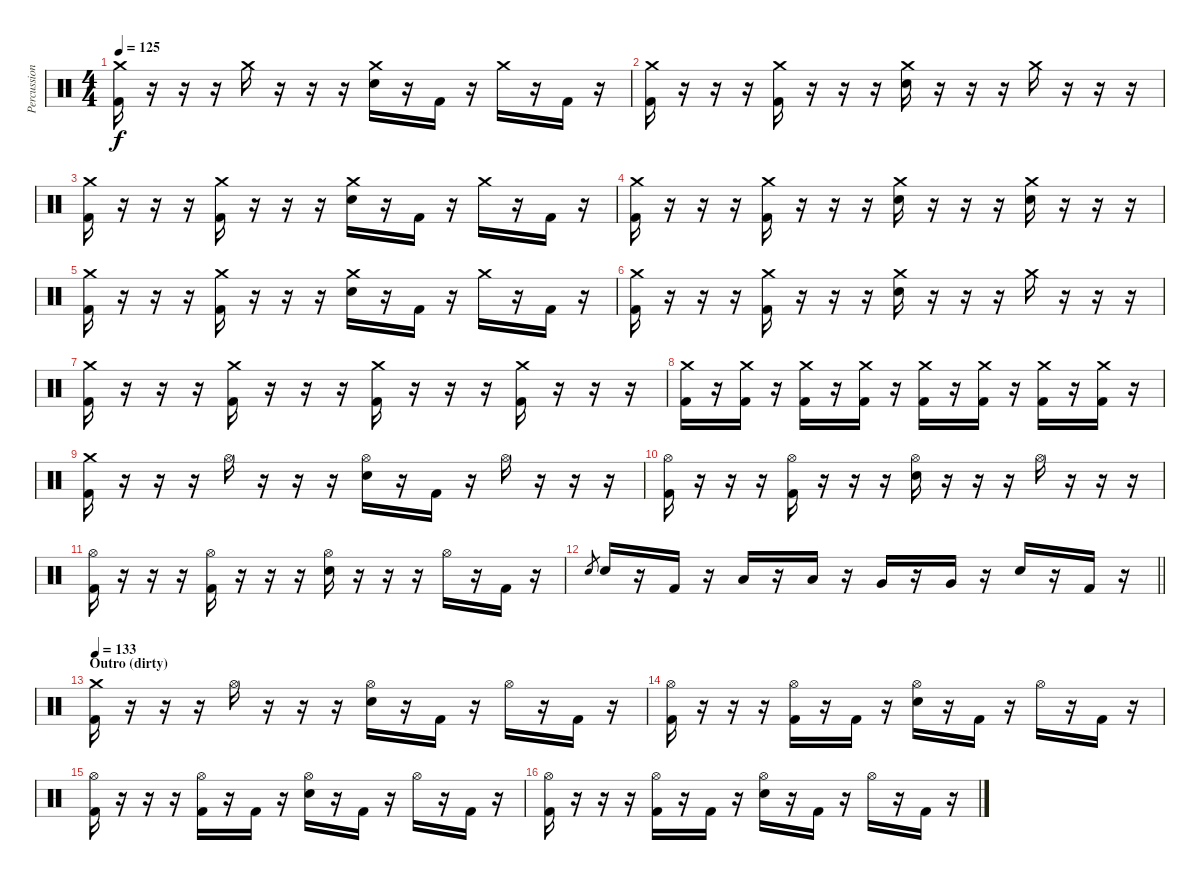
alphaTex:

\track ("Percussion" "Percussion") {instrument percussion}
\staff {score}
\articulation defaults
\ts (4 4)
\tempo 125
\clef neutral
\ks c
("Crash medium (hit)" "Kick (hit) 2").16{dy f} r.16 r.16 r.16 "Crash medium (hit)".16 r.16 r.16 r.16 ("Crash medium (hit)" "Electric Snare (hit)").16 r.16 "Kick (hit) 2".16 r.16 "Crash medium (hit)".16 r.16 "Kick (hit) 2".16 r.16 |
("Crash medium (hit)" "Kick (hit) 2").16 r.16 r.16 r.16 ("Crash medium (hit)" "Kick (hit) 2").16 r.16 r.16 r.16 ("Crash medium (hit)" "Electric Snare (hit)").16 r.16 r.16 r.16 "Crash medium (hit)".16 r.16 r.16 r.16 |
("Crash medium (hit)" "Kick (hit) 2").16 r.16 r.16 r.16 ("Crash medium (hit)" "Kick (hit) 2").16 r.16 r.16 r.16 ("Crash medium (hit)" "Electric Snare (hit)").16 r.16 "Kick (hit) 2".16 r.16 "Crash medium (hit)".16 r.16 "Kick (hit) 2".16 r.16 |
("Crash medium (hit)" "Kick (hit) 2").16 r.16 r.16 r.16 ("Crash medium (hit)" "Kick (hit) 2").16 r.16 r.16 r.16 ("Crash medium (hit)" "Electric Snare (hit)").16 r.16 r.16 r.16 ("Crash medium (hit)" "Electric Snare (hit)").16 r.16 r.16 r.16 |
("Crash medium (hit)" "Kick (hit) 2").16 r.16 r.16 r.16 ("Crash medium (hit)" "Kick (hit) 2").16 r.16 r.16 r.16 ("Crash medium (hit)" "Electric Snare (hit)").16 r.16 "Kick (hit) 2".16 r.16 "Crash medium (hit)".16 r.16 "Kick (hit) 2".16 r.16 |
("Crash medium (hit)" "Kick (hit) 2").16 r.16 r.16 r.16 ("Crash medium (hit)" "Kick (hit) 2").16 r.16 r.16 r.16 ("Crash medium (hit)" "Electric Snare (hit)").16 r.16 r.16 r.16 "Crash medium (hit)".16 r.16 r.16 r.16 |
("Crash medium (hit)" "Kick (hit) 2").16 r.16 r.16 r.16 ("Crash medium (hit)" "Kick (hit) 2").16 r.16 r.16 r.16 ("Crash medium (hit)" "Kick (hit) 2").16 r.16 r.16 r.16 ("Crash medium (hit)" "Kick (hit) 2").16 r.16 r.16 r.16 |
("Crash medium (hit)" "Kick (hit) 2").16 r.16 ("Crash medium (hit)" "Kick (hit) 2").16 r.16 ("Crash medium (hit)" "Kick (hit) 2").16 r.16 ("Crash medium (hit)" "Kick (hit) 2").16 r.16 ("Crash medium (hit)" "Kick (hit) 2").16 r.16 ("Crash medium (hit)" "Kick (hit) 2").16 r.16 ("Crash medium (hit)" "Kick (hit) 2").16 r.16 ("Crash medium (hit)" "Kick (hit) 2").16 r.16 |
("Crash medium (hit)" "Kick (hit) 2").16 r.16 r.16 r.16 "Hi-Hat (open)".16 r.16 r.16 r.16 ("Hi-Hat (open)" "Electric Snare (hit)").16 r.16 "Kick (hit) 2".16 r.16 "Hi-Hat (open)".16 r.16 r.16 r.16 |
("Hi-Hat (open)" "Kick (hit) 2").16 r.16 r.16 r.16 ("Hi-Hat (open)" "Kick (hit) 2").16 r.16 r.16 r.16 ("Hi-Hat (open)" "Electric Snare (hit)").16 r.16 r.16 r.16 "Hi-Hat (open)".16 r.16 r.16 r.16 |
("Hi-Hat (open)" "Kick (hit) 2").16 r.16 r.16 r.16 ("Hi-Hat (open)" "Kick (hit) 2").16 r.16 r.16 r.16 ("Hi-Hat (open)" "Electric Snare (hit)").16 r.16 r.16 r.16 "Hi-Hat (open)".16 r.16 "Kick (hit) 2".16 r.16 |
\barLineRight lightlight "Electric Snare (hit)".8{gr} "Electric Snare (hit)".16
r.16 "Kick (hit) 2".16 r.16 "Low Tom (hit)".16 r.16 "Low Tom (hit)".16 r.16 "Very Low Tom (hit)".16 r.16 "Very Low Tom (hit)".16 r.16 "Electric Snare (hit)".16 r.16 "Kick (hit) 2".16 r.16 |
\section ("" "Outro (dirty)")
\tempo 133
("Crash medium (hit)" "Kick (hit) 2").16 r.16 r.16 r.16 "Hi-Hat (open)".16 r.16 r.16 r.16 ("Hi-Hat (open)" "Electric Snare (hit)").16 r.16 "Kick (hit) 2".16 r.16 "Hi-Hat (open)".16 r.16 "Kick (hit) 2".16 r.16 |
("Hi-Hat (open)" "Kick (hit) 2").16 r.16 r.16 r.16 ("Hi-Hat (open)" "Kick (hit) 2").16 r.16 "Kick (hit) 2".16 r.16 ("Hi-Hat (open)" "Electric Snare (hit)").16 r.16 "Kick (hit) 2".16 r.16 "Hi-Hat (open)".16 r.16 "Kick (hit) 2".16 r.16 |
("Hi-Hat (open)" "Kick (hit) 2").16 r.16 r.16 r.16 ("Hi-Hat (open)" "Kick (hit) 2").16 r.16 "Kick (hit) 2".16 r.16 ("Hi-Hat (open)" "Electric Snare (hit)").16 r.16 "Kick (hit) 2".16 r.16 "Hi-Hat (open)".16 r.16 "Kick (hit) 2".16 r.16 |
("Hi-Hat (open)" "Kick (hit) 2").16 r.16 r.16 r.16 ("Hi-Hat (open)" "Kick (hit) 2").16 r.16 "Kick (hit) 2".16 r.16 ("Hi-Hat (open)" "Electric Snare (hit)").16 r.16 "Kick (hit) 2".16 r.16 "Hi-Hat (open)".16 r.16 "Kick (hit) 2".16 r.16
